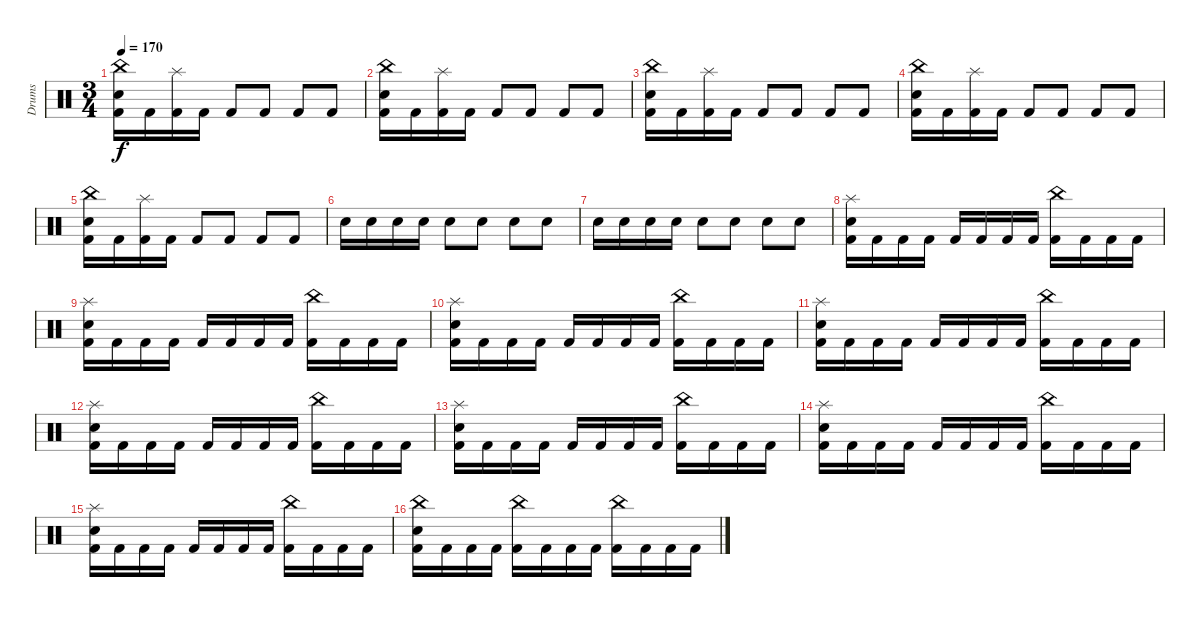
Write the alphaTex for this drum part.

\track ("Drums" "Drums") {instrument percussion}
\staff {score}
\articulation defaults
\ts (3 4)
\tempo 170
\clef neutral
\ks c
("China (hit)" "Electric Snare (hit)" "Kick (hit) 2").16{dy f} "Kick (hit) 2".16 ("Splash (hit)" "Kick (hit) 2").16 "Kick (hit) 2".16 "Kick (hit) 2".8 "Kick (hit) 2".8 "Kick (hit) 2".8 "Kick (hit) 2".8 |
("China (hit)" "Electric Snare (hit)" "Kick (hit) 2").16 "Kick (hit) 2".16 ("Splash (hit)" "Kick (hit) 2").16 "Kick (hit) 2".16 "Kick (hit) 2".8 "Kick (hit) 2".8 "Kick (hit) 2".8 "Kick (hit) 2".8 |
("China (hit)" "Electric Snare (hit)" "Kick (hit) 2").16 "Kick (hit) 2".16 ("Splash (hit)" "Kick (hit) 2").16 "Kick (hit) 2".16 "Kick (hit) 2".8 "Kick (hit) 2".8 "Kick (hit) 2".8 "Kick (hit) 2".8 |
("China (hit)" "Electric Snare (hit)" "Kick (hit) 2").16 "Kick (hit) 2".16 ("Splash (hit)" "Kick (hit) 2").16 "Kick (hit) 2".16 "Kick (hit) 2".8 "Kick (hit) 2".8 "Kick (hit) 2".8 "Kick (hit) 2".8 |
("China (hit)" "Electric Snare (hit)" "Kick (hit) 2").16 "Kick (hit) 2".16 ("Splash (hit)" "Kick (hit) 2").16 "Kick (hit) 2".16 "Kick (hit) 2".8 "Kick (hit) 2".8 "Kick (hit) 2".8 "Kick (hit) 2".8 |
"Electric Snare (hit)".16 "Electric Snare (hit)".16 "Electric Snare (hit)".16 "Electric Snare (hit)".16 "Electric Snare (hit)".8 "Electric Snare (hit)".8 "Electric Snare (hit)".8 "Electric Snare (hit)".8 |
"Electric Snare (hit)".16 "Electric Snare (hit)".16 "Electric Snare (hit)".16 "Electric Snare (hit)".16 "Electric Snare (hit)".8 "Electric Snare (hit)".8 "Electric Snare (hit)".8 "Electric Snare (hit)".8 |
("Splash (hit)" "Electric Snare (hit)" "Kick (hit) 2").16 "Kick (hit) 2".16 "Kick (hit) 2".16 "Kick (hit) 2".16 "Kick (hit) 2".16 "Kick (hit) 2".16 "Kick (hit) 2".16 "Kick (hit) 2".16 ("China (hit)" "Kick (hit) 2").16 "Kick (hit) 2".16 "Kick (hit) 2".16 "Kick (hit) 2".16 |
("Splash (hit)" "Electric Snare (hit)" "Kick (hit) 2").16 "Kick (hit) 2".16 "Kick (hit) 2".16 "Kick (hit) 2".16 "Kick (hit) 2".16 "Kick (hit) 2".16 "Kick (hit) 2".16 "Kick (hit) 2".16 ("China (hit)" "Kick (hit) 2").16 "Kick (hit) 2".16 "Kick (hit) 2".16 "Kick (hit) 2".16 |
("Splash (hit)" "Electric Snare (hit)" "Kick (hit) 2").16 "Kick (hit) 2".16 "Kick (hit) 2".16 "Kick (hit) 2".16 "Kick (hit) 2".16 "Kick (hit) 2".16 "Kick (hit) 2".16 "Kick (hit) 2".16 ("China (hit)" "Kick (hit) 2").16 "Kick (hit) 2".16 "Kick (hit) 2".16 "Kick (hit) 2".16 |
("Splash (hit)" "Electric Snare (hit)" "Kick (hit) 2").16 "Kick (hit) 2".16 "Kick (hit) 2".16 "Kick (hit) 2".16 "Kick (hit) 2".16 "Kick (hit) 2".16 "Kick (hit) 2".16 "Kick (hit) 2".16 ("China (hit)" "Kick (hit) 2").16 "Kick (hit) 2".16 "Kick (hit) 2".16 "Kick (hit) 2".16 |
("Splash (hit)" "Electric Snare (hit)" "Kick (hit) 2").16 "Kick (hit) 2".16 "Kick (hit) 2".16 "Kick (hit) 2".16 "Kick (hit) 2".16 "Kick (hit) 2".16 "Kick (hit) 2".16 "Kick (hit) 2".16 ("China (hit)" "Kick (hit) 2").16 "Kick (hit) 2".16 "Kick (hit) 2".16 "Kick (hit) 2".16 |
("Splash (hit)" "Electric Snare (hit)" "Kick (hit) 2").16 "Kick (hit) 2".16 "Kick (hit) 2".16 "Kick (hit) 2".16 "Kick (hit) 2".16 "Kick (hit) 2".16 "Kick (hit) 2".16 "Kick (hit) 2".16 ("China (hit)" "Kick (hit) 2").16 "Kick (hit) 2".16 "Kick (hit) 2".16 "Kick (hit) 2".16 |
("Splash (hit)" "Electric Snare (hit)" "Kick (hit) 2").16 "Kick (hit) 2".16 "Kick (hit) 2".16 "Kick (hit) 2".16 "Kick (hit) 2".16 "Kick (hit) 2".16 "Kick (hit) 2".16 "Kick (hit) 2".16 ("China (hit)" "Kick (hit) 2").16 "Kick (hit) 2".16 "Kick (hit) 2".16 "Kick (hit) 2".16 |
("Splash (hit)" "Electric Snare (hit)" "Kick (hit) 2").16 "Kick (hit) 2".16 "Kick (hit) 2".16 "Kick (hit) 2".16 "Kick (hit) 2".16 "Kick (hit) 2".16 "Kick (hit) 2".16 "Kick (hit) 2".16 ("China (hit)" "Kick (hit) 2").16 "Kick (hit) 2".16 "Kick (hit) 2".16 "Kick (hit) 2".16 |
("China (hit)" "Electric Snare (hit)" "Kick (hit) 2").16 "Kick (hit) 2".16 "Kick (hit) 2".16 "Kick (hit) 2".16 ("China (hit)" "Kick (hit) 2").16 "Kick (hit) 2".16 "Kick (hit) 2".16 "Kick (hit) 2".16 ("China (hit)" "Kick (hit) 2").16 "Kick (hit) 2".16 "Kick (hit) 2".16 "Kick (hit) 2".16
